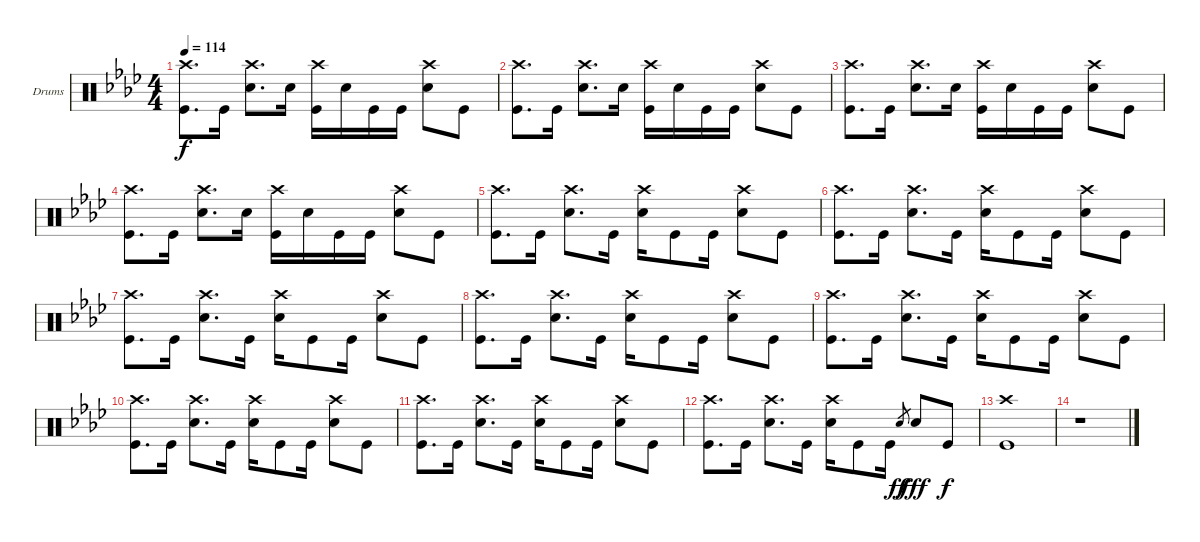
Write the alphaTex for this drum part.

\defaultSystemsLayout 4
\bracketExtendMode groupsimilarinstruments
\firstSystemTrackNameOrientation horizontal
\otherSystemsTrackNameOrientation horizontal
\track ("Drumkit" "Drums") {instrument percussion}
\staff {score}
\articulation defaults
\ts (4 4)
\tempo 114
\clef neutral
\scale
1.06431
\ks ab
("Crash high (hit)" "Kick (hit)").8{d dy f} "Kick (hit)".16 ("Crash high (hit)" "Snare (hit) 2").8{d} "Snare (hit) 2".16 ("Crash high (hit)" "Kick (hit)").16 "Snare (hit) 2".16 "Kick (hit)".16 "Kick (hit)".16 ("Crash high (hit)" "Snare (hit) 2").8 "Kick (hit)".8 |
\scale
0.935687 ("Crash high (hit)" "Kick (hit)").8{d} "Kick (hit)".16 ("Crash high (hit)" "Snare (hit) 2").8{d} "Snare (hit) 2".16 ("Crash high (hit)" "Kick (hit)").16 "Snare (hit) 2".16 "Kick (hit)".16 "Kick (hit)".16 ("Crash high (hit)" "Snare (hit) 2").8 "Kick (hit)".8 |
\scale
1.06431 ("Crash high (hit)" "Kick (hit)").8{d} "Kick (hit)".16 ("Crash high (hit)" "Snare (hit) 2").8{d} "Snare (hit) 2".16 ("Crash high (hit)" "Kick (hit)").16 "Snare (hit) 2".16 "Kick (hit)".16 "Kick (hit)".16 ("Crash high (hit)" "Snare (hit) 2").8 "Kick (hit)".8 |
\scale
0.935687 ("Crash high (hit)" "Kick (hit)").8{d} "Kick (hit)".16 ("Crash high (hit)" "Snare (hit) 2").8{d} "Snare (hit) 2".16 ("Crash high (hit)" "Kick (hit)").16 "Snare (hit) 2".16 "Kick (hit)".16 "Kick (hit)".16 ("Crash high (hit)" "Snare (hit) 2").8 "Kick (hit)".8 |
\scale
1.06431 ("Crash high (hit)" "Kick (hit)").8{d} "Kick (hit)".16 ("Crash high (hit)" "Snare (hit) 2").8{d} "Kick (hit)".16 ("Crash high (hit)" "Snare (hit) 2").16 "Kick (hit)".8 "Kick (hit)".16 ("Crash high (hit)" "Snare (hit) 2").8 "Kick (hit)".8 |
\scale
0.935687 ("Crash high (hit)" "Kick (hit)").8{d} "Kick (hit)".16 ("Crash high (hit)" "Snare (hit) 2").8{d} "Kick (hit)".16 ("Crash high (hit)" "Snare (hit) 2").16 "Kick (hit)".8 "Kick (hit)".16 ("Crash high (hit)" "Snare (hit) 2").8 "Kick (hit)".8 |
\scale
1.06431 ("Crash high (hit)" "Kick (hit)").8{d} "Kick (hit)".16 ("Crash high (hit)" "Snare (hit) 2").8{d} "Kick (hit)".16 ("Crash high (hit)" "Snare (hit) 2").16 "Kick (hit)".8 "Kick (hit)".16 ("Crash high (hit)" "Snare (hit) 2").8 "Kick (hit)".8 |
\scale
0.935687 ("Crash high (hit)" "Kick (hit)").8{d} "Kick (hit)".16 ("Crash high (hit)" "Snare (hit) 2").8{d} "Kick (hit)".16 ("Crash high (hit)" "Snare (hit) 2").16 "Kick (hit)".8 "Kick (hit)".16 ("Crash high (hit)" "Snare (hit) 2").8 "Kick (hit)".8 |
\scale
1.06431 ("Crash high (hit)" "Kick (hit)").8{d} "Kick (hit)".16 ("Crash high (hit)" "Snare (hit) 2").8{d} "Kick (hit)".16 ("Crash high (hit)" "Snare (hit) 2").16 "Kick (hit)".8 "Kick (hit)".16 ("Crash high (hit)" "Snare (hit) 2").8 "Kick (hit)".8 |
\scale
0.935687 ("Crash high (hit)" "Kick (hit)").8{d} "Kick (hit)".16 ("Crash high (hit)" "Snare (hit) 2").8{d} "Kick (hit)".16 ("Crash high (hit)" "Snare (hit) 2").16 "Kick (hit)".8 "Kick (hit)".16 ("Crash high (hit)" "Snare (hit) 2").8 "Kick (hit)".8 |
\scale
1.06431 ("Crash high (hit)" "Kick (hit)").8{d} "Kick (hit)".16 ("Crash high (hit)" "Snare (hit) 2").8{d} "Kick (hit)".16 ("Crash high (hit)" "Snare (hit) 2").16 "Kick (hit)".8 "Kick (hit)".16 ("Crash high (hit)" "Snare (hit) 2").8 "Kick (hit)".8 |
\scale
0.935687 ("Crash high (hit)" "Kick (hit)").8{d} "Kick (hit)".16 ("Crash high (hit)" "Snare (hit) 2").8{d} "Kick (hit)".16 ("Crash high (hit)" "Snare (hit) 2").16 "Kick (hit)".8 "Kick (hit)".16 "Snare (hit) 2".8{gr dy ff} "Snare (hit) 2".8{dy fff} "Kick (hit)".8{dy f} |
\scale
1.06431 ("Crash high (hit)" "Kick (hit)").1 |
\scale
0.935687 r.1 |
\scale
1.06431 |
\scale
0.935687
